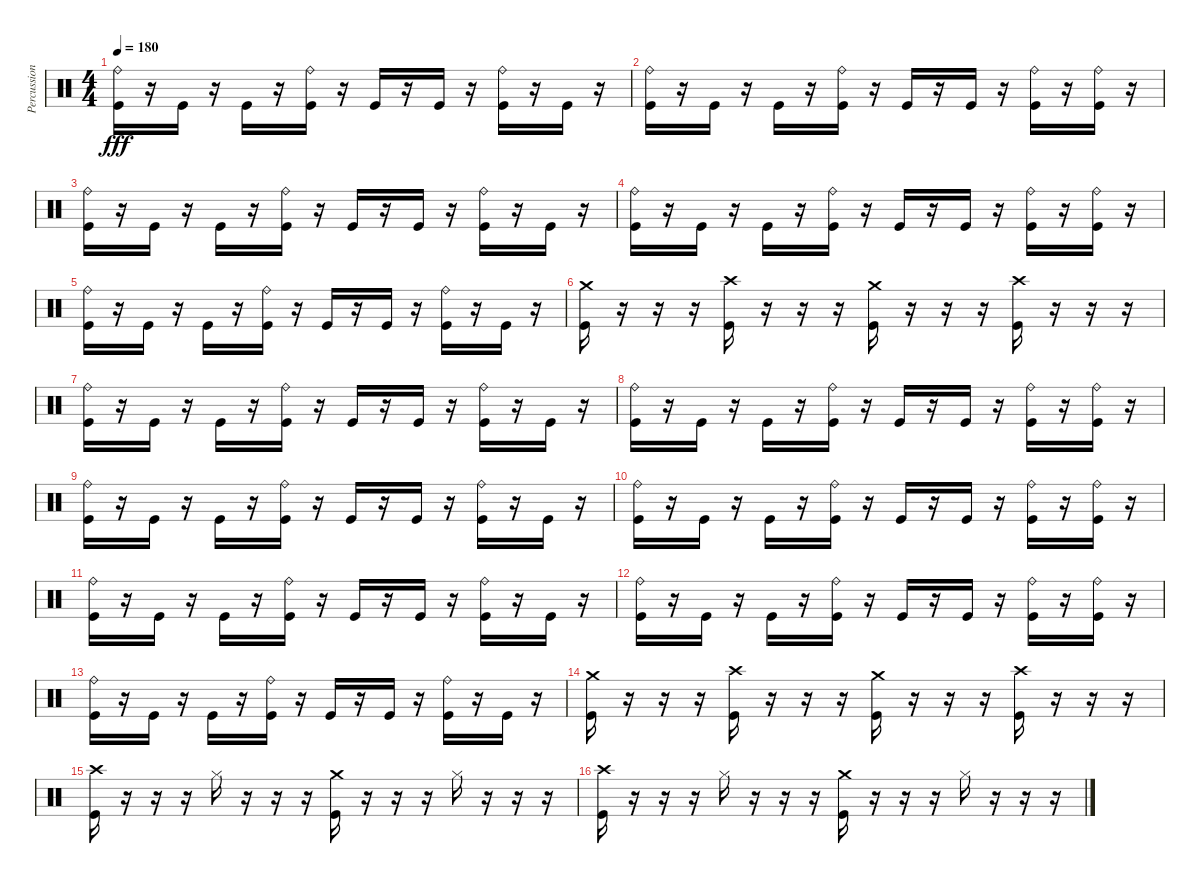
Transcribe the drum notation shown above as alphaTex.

\track ("Percussion" "Percussion") {instrument percussion}
\staff {score}
\articulation defaults
\ts (4 4)
\tempo 180
\clef neutral
\ks c
("Ride (bell)" "Kick (hit)").16{dy fff} r.16 "Kick (hit)".16 r.16 "Kick (hit)".16 r.16 ("Ride (bell)" "Kick (hit)").16 r.16 "Kick (hit)".16 r.16 "Kick (hit)".16 r.16 ("Ride (bell)" "Kick (hit)").16 r.16 "Kick (hit)".16 r.16 |
("Ride (bell)" "Kick (hit)").16 r.16 "Kick (hit)".16 r.16 "Kick (hit)".16 r.16 ("Ride (bell)" "Kick (hit)").16 r.16 "Kick (hit)".16 r.16 "Kick (hit)".16 r.16 ("Ride (bell)" "Kick (hit)").16 r.16 ("Ride (bell)" "Kick (hit)").16 r.16 |
("Ride (bell)" "Kick (hit)").16 r.16 "Kick (hit)".16 r.16 "Kick (hit)".16 r.16 ("Ride (bell)" "Kick (hit)").16 r.16 "Kick (hit)".16 r.16 "Kick (hit)".16 r.16 ("Ride (bell)" "Kick (hit)").16 r.16 "Kick (hit)".16 r.16 |
("Ride (bell)" "Kick (hit)").16 r.16 "Kick (hit)".16 r.16 "Kick (hit)".16 r.16 ("Ride (bell)" "Kick (hit)").16 r.16 "Kick (hit)".16 r.16 "Kick (hit)".16 r.16 ("Ride (bell)" "Kick (hit)").16 r.16 ("Ride (bell)" "Kick (hit)").16 r.16 |
("Ride (bell)" "Kick (hit)").16 r.16 "Kick (hit)".16 r.16 "Kick (hit)".16 r.16 ("Ride (bell)" "Kick (hit)").16 r.16 "Kick (hit)".16 r.16 "Kick (hit)".16 r.16 ("Ride (bell)" "Kick (hit)").16 r.16 "Kick (hit)".16 r.16 |
("Crash medium (hit)" "Kick (hit)").16 r.16 r.16 r.16 ("Crash high (hit)" "Kick (hit)").16 r.16 r.16 r.16 ("Crash medium (hit)" "Kick (hit)").16 r.16 r.16 r.16 ("Crash high (hit)" "Kick (hit)").16 r.16 r.16 r.16 |
("Ride (bell)" "Kick (hit)").16 r.16 "Kick (hit)".16 r.16 "Kick (hit)".16 r.16 ("Ride (bell)" "Kick (hit)").16 r.16 "Kick (hit)".16 r.16 "Kick (hit)".16 r.16 ("Ride (bell)" "Kick (hit)").16 r.16 "Kick (hit)".16 r.16 |
("Ride (bell)" "Kick (hit)").16 r.16 "Kick (hit)".16 r.16 "Kick (hit)".16 r.16 ("Ride (bell)" "Kick (hit)").16 r.16 "Kick (hit)".16 r.16 "Kick (hit)".16 r.16 ("Ride (bell)" "Kick (hit)").16 r.16 ("Ride (bell)" "Kick (hit)").16 r.16 |
("Ride (bell)" "Kick (hit)").16 r.16 "Kick (hit)".16 r.16 "Kick (hit)".16 r.16 ("Ride (bell)" "Kick (hit)").16 r.16 "Kick (hit)".16 r.16 "Kick (hit)".16 r.16 ("Ride (bell)" "Kick (hit)").16 r.16 "Kick (hit)".16 r.16 |
("Ride (bell)" "Kick (hit)").16 r.16 "Kick (hit)".16 r.16 "Kick (hit)".16 r.16 ("Ride (bell)" "Kick (hit)").16 r.16 "Kick (hit)".16 r.16 "Kick (hit)".16 r.16 ("Ride (bell)" "Kick (hit)").16 r.16 ("Ride (bell)" "Kick (hit)").16 r.16 |
("Ride (bell)" "Kick (hit)").16 r.16 "Kick (hit)".16 r.16 "Kick (hit)".16 r.16 ("Ride (bell)" "Kick (hit)").16 r.16 "Kick (hit)".16 r.16 "Kick (hit)".16 r.16 ("Ride (bell)" "Kick (hit)").16 r.16 "Kick (hit)".16 r.16 |
("Ride (bell)" "Kick (hit)").16 r.16 "Kick (hit)".16 r.16 "Kick (hit)".16 r.16 ("Ride (bell)" "Kick (hit)").16 r.16 "Kick (hit)".16 r.16 "Kick (hit)".16 r.16 ("Ride (bell)" "Kick (hit)").16 r.16 ("Ride (bell)" "Kick (hit)").16 r.16 |
("Ride (bell)" "Kick (hit)").16 r.16 "Kick (hit)".16 r.16 "Kick (hit)".16 r.16 ("Ride (bell)" "Kick (hit)").16 r.16 "Kick (hit)".16 r.16 "Kick (hit)".16 r.16 ("Ride (bell)" "Kick (hit)").16 r.16 "Kick (hit)".16 r.16 |
("Crash medium (hit)" "Kick (hit)").16 r.16 r.16 r.16 ("Crash high (hit)" "Kick (hit)").16 r.16 r.16 r.16 ("Crash medium (hit)" "Kick (hit)").16 r.16 r.16 r.16 ("Crash high (hit)" "Kick (hit)").16 r.16 r.16 r.16 |
("Crash high (hit)" "Kick (hit)").16 r.16 r.16 r.16 "Hi-Hat (closed)".16 r.16 r.16 r.16 ("Crash medium (hit)" "Kick (hit)").16 r.16 r.16 r.16 "Hi-Hat (closed)".16 r.16 r.16 r.16 |
("Crash high (hit)" "Kick (hit)").16 r.16 r.16 r.16 "Hi-Hat (closed)".16 r.16 r.16 r.16 ("Crash medium (hit)" "Kick (hit)").16 r.16 r.16 r.16 "Hi-Hat (closed)".16 r.16 r.16 r.16
